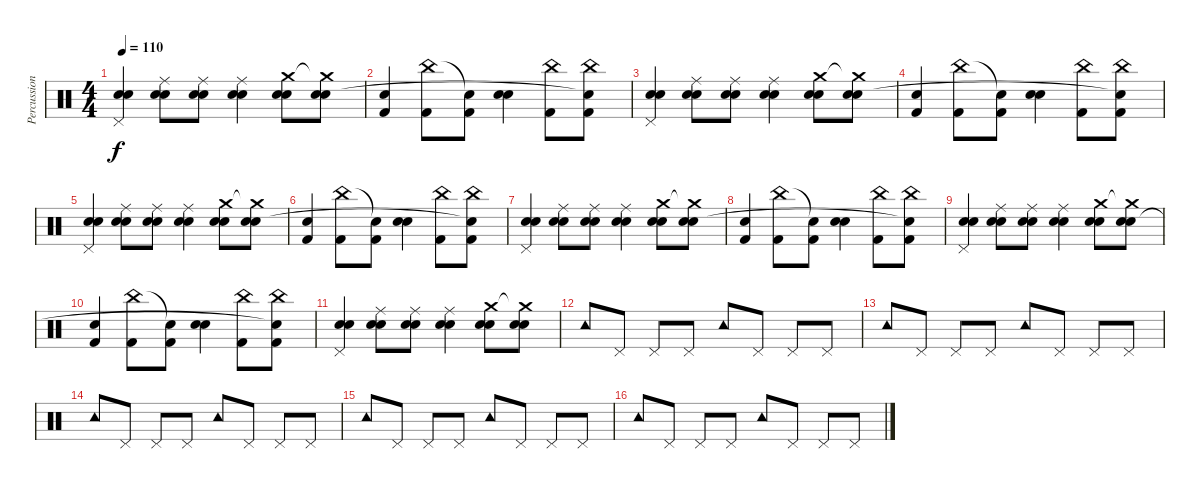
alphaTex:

\track ("Percussion" "Percussion") {instrument percussion}
\staff {score}
\articulation defaults
\ts (4 4)
\tempo 110
\clef neutral
\ks c
("Pedal Hi-Hat (hit)" "Electric Snare (hit)" "Snare (hit) 2").4{dy f} ("Snare (hit) 2" "Ride (middle)" "Electric Snare (hit)").8 ("Snare (hit) 2" "Ride (middle)" "Electric Snare (hit)").8 ("Snare (hit) 2" "Ride (middle)" "Electric Snare (hit)").4 ("Snare (hit) 2" "Crash medium (hit)" "Electric Snare (hit)").8 ("Snare (hit) 2" "Crash medium (hit)"{t} "Electric Snare (hit)").8 |
("Kick (hit) 2" "Electric Snare (hit)").4 ("Kick (hit) 2" "China (hit)").8 ("Kick (hit) 2" "Snare (hit)"{t}).8 ("Hand Clap (hit)" "Electric Snare (hit)").4 ("Kick (hit) 2" "China (hit)").8 ("Kick (hit) 2" "China (hit)" "Snare (hit)"{t}).8 |
("Pedal Hi-Hat (hit)" "Electric Snare (hit)" "Snare (hit) 2").4 ("Snare (hit) 2" "Ride (middle)" "Electric Snare (hit)").8 ("Snare (hit) 2" "Ride (middle)" "Electric Snare (hit)").8 ("Snare (hit) 2" "Ride (middle)" "Electric Snare (hit)").4 ("Snare (hit) 2" "Crash medium (hit)" "Electric Snare (hit)").8 ("Snare (hit) 2" "Crash medium (hit)"{t} "Electric Snare (hit)").8 |
("Kick (hit) 2" "Electric Snare (hit)").4 ("Kick (hit) 2" "China (hit)").8 ("Kick (hit) 2" "Snare (hit)"{t}).8 ("Hand Clap (hit)" "Electric Snare (hit)").4 ("Kick (hit) 2" "China (hit)").8 ("Kick (hit) 2" "China (hit)" "Snare (hit)"{t}).8 |
("Pedal Hi-Hat (hit)" "Electric Snare (hit)" "Snare (hit) 2").4 ("Snare (hit) 2" "Ride (middle)" "Electric Snare (hit)").8 ("Snare (hit) 2" "Ride (middle)" "Electric Snare (hit)").8 ("Snare (hit) 2" "Ride (middle)" "Electric Snare (hit)").4 ("Snare (hit) 2" "Crash medium (hit)" "Electric Snare (hit)").8 ("Snare (hit) 2" "Crash medium (hit)"{t} "Electric Snare (hit)").8 |
("Kick (hit) 2" "Electric Snare (hit)").4 ("Kick (hit) 2" "China (hit)").8 ("Kick (hit) 2" "Snare (hit)"{t}).8 ("Hand Clap (hit)" "Electric Snare (hit)").4 ("Kick (hit) 2" "China (hit)").8 ("Kick (hit) 2" "China (hit)" "Snare (hit)"{t}).8 |
("Pedal Hi-Hat (hit)" "Electric Snare (hit)" "Snare (hit) 2").4 ("Snare (hit) 2" "Ride (middle)" "Electric Snare (hit)").8 ("Snare (hit) 2" "Ride (middle)" "Electric Snare (hit)").8 ("Snare (hit) 2" "Ride (middle)" "Electric Snare (hit)").4 ("Snare (hit) 2" "Crash medium (hit)" "Electric Snare (hit)").8 ("Snare (hit) 2" "Crash medium (hit)"{t} "Electric Snare (hit)").8 |
("Kick (hit) 2" "Electric Snare (hit)").4 ("Kick (hit) 2" "China (hit)").8 ("Kick (hit) 2" "Snare (hit)"{t}).8 ("Hand Clap (hit)" "Electric Snare (hit)").4 ("Kick (hit) 2" "China (hit)").8 ("Kick (hit) 2" "China (hit)" "Snare (hit)"{t}).8 |
("Pedal Hi-Hat (hit)" "Electric Snare (hit)" "Snare (hit) 2").4 ("Snare (hit) 2" "Ride (middle)" "Electric Snare (hit)").8 ("Snare (hit) 2" "Ride (middle)" "Electric Snare (hit)").8 ("Snare (hit) 2" "Ride (middle)" "Electric Snare (hit)").4 ("Snare (hit) 2" "Crash medium (hit)" "Electric Snare (hit)").8 ("Snare (hit) 2" "Crash medium (hit)"{t} "Electric Snare (hit)").8 |
("Kick (hit) 2" "Electric Snare (hit)").4 ("Kick (hit) 2" "China (hit)").8 ("Kick (hit) 2" "Snare (hit)"{t}).8 ("Hand Clap (hit)" "Electric Snare (hit)").4 ("Kick (hit) 2" "China (hit)").8 ("Kick (hit) 2" "China (hit)" "Snare (hit)"{t}).8 |
("Pedal Hi-Hat (hit)" "Electric Snare (hit)" "Snare (hit) 2").4 ("Snare (hit) 2" "Ride (middle)" "Electric Snare (hit)").8 ("Snare (hit) 2" "Ride (middle)" "Electric Snare (hit)").8 ("Snare (hit) 2" "Ride (middle)" "Electric Snare (hit)").4 ("Snare (hit) 2" "Crash medium (hit)" "Electric Snare (hit)").8 ("Snare (hit) 2" "Crash medium (hit)"{t} "Electric Snare (hit)").8 |
"Tambourine (hit)".8 "Pedal Hi-Hat (hit)".8 "Pedal Hi-Hat (hit)".8 "Pedal Hi-Hat (hit)".8 "Tambourine (hit)".8 "Pedal Hi-Hat (hit)".8 "Pedal Hi-Hat (hit)".8 "Pedal Hi-Hat (hit)".8 |
"Tambourine (hit)".8 "Pedal Hi-Hat (hit)".8 "Pedal Hi-Hat (hit)".8 "Pedal Hi-Hat (hit)".8 "Tambourine (hit)".8 "Pedal Hi-Hat (hit)".8 "Pedal Hi-Hat (hit)".8 "Pedal Hi-Hat (hit)".8 |
"Tambourine (hit)".8 "Pedal Hi-Hat (hit)".8 "Pedal Hi-Hat (hit)".8 "Pedal Hi-Hat (hit)".8 "Tambourine (hit)".8 "Pedal Hi-Hat (hit)".8 "Pedal Hi-Hat (hit)".8 "Pedal Hi-Hat (hit)".8 |
"Tambourine (hit)".8 "Pedal Hi-Hat (hit)".8 "Pedal Hi-Hat (hit)".8 "Pedal Hi-Hat (hit)".8 "Tambourine (hit)".8 "Pedal Hi-Hat (hit)".8 "Pedal Hi-Hat (hit)".8 "Pedal Hi-Hat (hit)".8 |
"Tambourine (hit)".8 "Pedal Hi-Hat (hit)".8 "Pedal Hi-Hat (hit)".8 "Pedal Hi-Hat (hit)".8 "Tambourine (hit)".8 "Pedal Hi-Hat (hit)".8 "Pedal Hi-Hat (hit)".8 "Pedal Hi-Hat (hit)".8
